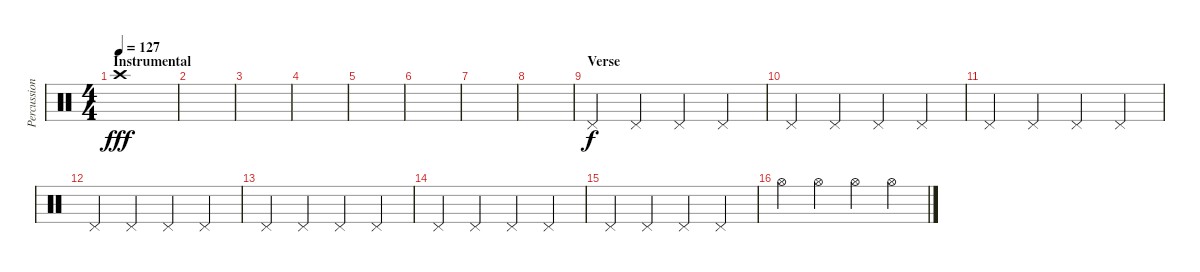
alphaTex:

\track ("Percussion" "Percussion") {instrument percussion}
\staff {score}
\articulation defaults
\ts (4 4)
\section ("" "Instrumental")
\tempo 127
\clef neutral
\ks c "Crash high (hit)".1{dy fff}
|
|
|
|
|
|
|
|
\section ("" "Verse")
"Pedal Hi-Hat (hit)".4{dy f} "Pedal Hi-Hat (hit)".4 "Pedal Hi-Hat (hit)".4 "Pedal Hi-Hat (hit)".4 |
"Pedal Hi-Hat (hit)".4 "Pedal Hi-Hat (hit)".4 "Pedal Hi-Hat (hit)".4 "Pedal Hi-Hat (hit)".4 |
"Pedal Hi-Hat (hit)".4 "Pedal Hi-Hat (hit)".4 "Pedal Hi-Hat (hit)".4 "Pedal Hi-Hat (hit)".4 |
"Pedal Hi-Hat (hit)".4 "Pedal Hi-Hat (hit)".4 "Pedal Hi-Hat (hit)".4 "Pedal Hi-Hat (hit)".4 |
"Pedal Hi-Hat (hit)".4 "Pedal Hi-Hat (hit)".4 "Pedal Hi-Hat (hit)".4 "Pedal Hi-Hat (hit)".4 |
"Pedal Hi-Hat (hit)".4 "Pedal Hi-Hat (hit)".4 "Pedal Hi-Hat (hit)".4 "Pedal Hi-Hat (hit)".4 |
"Pedal Hi-Hat (hit)".4 "Pedal Hi-Hat (hit)".4 "Pedal Hi-Hat (hit)".4 "Pedal Hi-Hat (hit)".4 |
"Hi-Hat (open)".4 "Hi-Hat (open)".4 "Hi-Hat (open)".4 "Hi-Hat (open)".4
